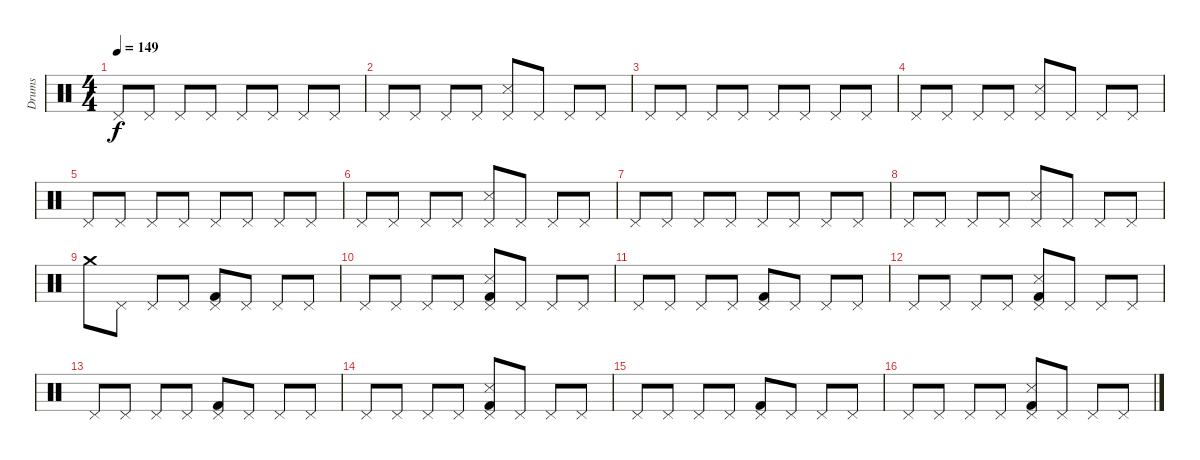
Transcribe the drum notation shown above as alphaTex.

\track ("Drums" "Drums") {instrument percussion}
\staff {score}
\articulation defaults
\ts (4 4)
\tempo 149
\clef neutral
\ks c "Pedal Hi-Hat (hit)".8{dy f} "Pedal Hi-Hat (hit)".8 "Pedal Hi-Hat (hit)".8 "Pedal Hi-Hat (hit)".8 "Pedal Hi-Hat (hit)".8 "Pedal Hi-Hat (hit)".8 "Pedal Hi-Hat (hit)".8 "Pedal Hi-Hat (hit)".8
|
"Pedal Hi-Hat (hit)".8 "Pedal Hi-Hat (hit)".8 "Pedal Hi-Hat (hit)".8 "Pedal Hi-Hat (hit)".8 ("Pedal Hi-Hat (hit)" "Snare (side stick) 3").8 "Pedal Hi-Hat (hit)".8 "Pedal Hi-Hat (hit)".8 "Pedal Hi-Hat (hit)".8 |
"Pedal Hi-Hat (hit)".8 "Pedal Hi-Hat (hit)".8 "Pedal Hi-Hat (hit)".8 "Pedal Hi-Hat (hit)".8 "Pedal Hi-Hat (hit)".8 "Pedal Hi-Hat (hit)".8 "Pedal Hi-Hat (hit)".8 "Pedal Hi-Hat (hit)".8 |
"Pedal Hi-Hat (hit)".8 "Pedal Hi-Hat (hit)".8 "Pedal Hi-Hat (hit)".8 "Pedal Hi-Hat (hit)".8 ("Pedal Hi-Hat (hit)" "Snare (side stick) 3").8 "Pedal Hi-Hat (hit)".8 "Pedal Hi-Hat (hit)".8 "Pedal Hi-Hat (hit)".8 |
"Pedal Hi-Hat (hit)".8 "Pedal Hi-Hat (hit)".8 "Pedal Hi-Hat (hit)".8 "Pedal Hi-Hat (hit)".8 "Pedal Hi-Hat (hit)".8 "Pedal Hi-Hat (hit)".8 "Pedal Hi-Hat (hit)".8 "Pedal Hi-Hat (hit)".8 |
"Pedal Hi-Hat (hit)".8 "Pedal Hi-Hat (hit)".8 "Pedal Hi-Hat (hit)".8 "Pedal Hi-Hat (hit)".8 ("Pedal Hi-Hat (hit)" "Snare (side stick) 3").8 "Pedal Hi-Hat (hit)".8 "Pedal Hi-Hat (hit)".8 "Pedal Hi-Hat (hit)".8 |
"Pedal Hi-Hat (hit)".8 "Pedal Hi-Hat (hit)".8 "Pedal Hi-Hat (hit)".8 "Pedal Hi-Hat (hit)".8 "Pedal Hi-Hat (hit)".8 "Pedal Hi-Hat (hit)".8 "Pedal Hi-Hat (hit)".8 "Pedal Hi-Hat (hit)".8 |
"Pedal Hi-Hat (hit)".8 "Pedal Hi-Hat (hit)".8 "Pedal Hi-Hat (hit)".8 "Pedal Hi-Hat (hit)".8 ("Pedal Hi-Hat (hit)" "Snare (side stick) 3").8 "Pedal Hi-Hat (hit)".8 "Pedal Hi-Hat (hit)".8 "Pedal Hi-Hat (hit)".8 |
"Crash medium (hit)".8 "Pedal Hi-Hat (hit)".8 "Pedal Hi-Hat (hit)".8 "Pedal Hi-Hat (hit)".8 ("Pedal Hi-Hat (hit)" "Kick (hit) 2").8 "Pedal Hi-Hat (hit)".8 "Pedal Hi-Hat (hit)".8 "Pedal Hi-Hat (hit)".8 |
"Pedal Hi-Hat (hit)".8 "Pedal Hi-Hat (hit)".8 "Pedal Hi-Hat (hit)".8 "Pedal Hi-Hat (hit)".8 ("Pedal Hi-Hat (hit)" "Snare (side stick) 3" "Kick (hit) 2").8 "Pedal Hi-Hat (hit)".8 "Pedal Hi-Hat (hit)".8 "Pedal Hi-Hat (hit)".8 |
"Pedal Hi-Hat (hit)".8 "Pedal Hi-Hat (hit)".8 "Pedal Hi-Hat (hit)".8 "Pedal Hi-Hat (hit)".8 ("Pedal Hi-Hat (hit)" "Kick (hit) 2").8 "Pedal Hi-Hat (hit)".8 "Pedal Hi-Hat (hit)".8 "Pedal Hi-Hat (hit)".8 |
"Pedal Hi-Hat (hit)".8 "Pedal Hi-Hat (hit)".8 "Pedal Hi-Hat (hit)".8 "Pedal Hi-Hat (hit)".8 ("Pedal Hi-Hat (hit)" "Snare (side stick) 3" "Kick (hit) 2").8 "Pedal Hi-Hat (hit)".8 "Pedal Hi-Hat (hit)".8 "Pedal Hi-Hat (hit)".8 |
"Pedal Hi-Hat (hit)".8 "Pedal Hi-Hat (hit)".8 "Pedal Hi-Hat (hit)".8 "Pedal Hi-Hat (hit)".8 ("Pedal Hi-Hat (hit)" "Kick (hit) 2").8 "Pedal Hi-Hat (hit)".8 "Pedal Hi-Hat (hit)".8 "Pedal Hi-Hat (hit)".8 |
"Pedal Hi-Hat (hit)".8 "Pedal Hi-Hat (hit)".8 "Pedal Hi-Hat (hit)".8 "Pedal Hi-Hat (hit)".8 ("Pedal Hi-Hat (hit)" "Snare (side stick) 3" "Kick (hit) 2").8 "Pedal Hi-Hat (hit)".8 "Pedal Hi-Hat (hit)".8 "Pedal Hi-Hat (hit)".8 |
"Pedal Hi-Hat (hit)".8 "Pedal Hi-Hat (hit)".8 "Pedal Hi-Hat (hit)".8 "Pedal Hi-Hat (hit)".8 ("Pedal Hi-Hat (hit)" "Kick (hit) 2").8 "Pedal Hi-Hat (hit)".8 "Pedal Hi-Hat (hit)".8 "Pedal Hi-Hat (hit)".8 |
"Pedal Hi-Hat (hit)".8 "Pedal Hi-Hat (hit)".8 "Pedal Hi-Hat (hit)".8 "Pedal Hi-Hat (hit)".8 ("Pedal Hi-Hat (hit)" "Snare (side stick) 3" "Kick (hit) 2").8 "Pedal Hi-Hat (hit)".8 "Pedal Hi-Hat (hit)".8 "Pedal Hi-Hat (hit)".8
